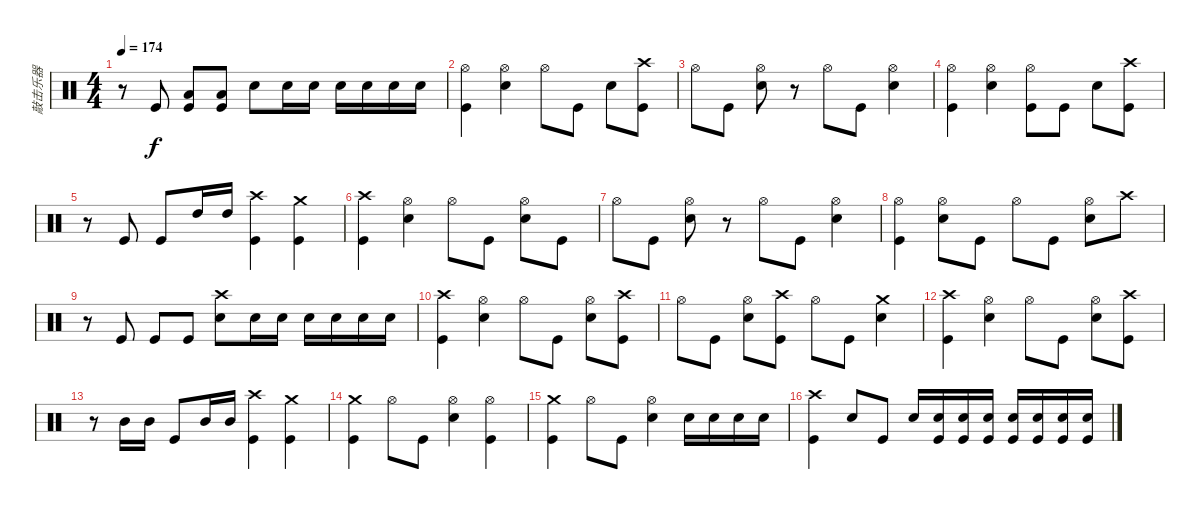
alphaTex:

\track ("敲击乐器" "敲击乐器") {instrument percussion}
\staff {score}
\articulation defaults
\ts (4 4)
\tempo 174
\clef neutral
\ks c
r.8{dy f} "Kick (hit)".8 ("Kick (hit)" "Low Tom (hit)").8 ("Kick (hit)" "Low Tom (hit)").8 "Electric Snare (hit)".8 "Electric Snare (hit)".16 "Electric Snare (hit)".16 "Electric Snare (hit)".16 "Electric Snare (hit)".16 "Electric Snare (hit)".16 "Electric Snare (hit)".16 |
("Hi-Hat (open)" "Kick (hit)").4 ("Hi-Hat (open)" "Electric Snare (hit)").4 "Hi-Hat (open)".8 "Kick (hit)".8 "Electric Snare (hit)".8 ("Kick (hit)" "Crash high (hit)").8 |
"Hi-Hat (open)".8 "Kick (hit)".8 ("Hi-Hat (open)" "Electric Snare (hit)").8 r.8 "Hi-Hat (open)".8 "Kick (hit)".8 ("Hi-Hat (open)" "Electric Snare (hit)").4 |
("Hi-Hat (open)" "Kick (hit)").4 ("Hi-Hat (open)" "Electric Snare (hit)").4 ("Hi-Hat (open)" "Kick (hit)").8 "Kick (hit)".8 "Electric Snare (hit)".8 ("Kick (hit)" "Crash high (hit)").8 |
r.8 "Kick (hit)".8 "Kick (hit)".8 "High Tom (hit)".16 "High Tom (hit)".16 ("Kick (hit)" "Crash high (hit)").4 ("Kick (hit)" "Crash medium (hit)").4 |
("Crash high (hit)" "Kick (hit)").4 ("Hi-Hat (open)" "Electric Snare (hit)").4 "Hi-Hat (open)".8 "Kick (hit)".8 ("Electric Snare (hit)" "Hi-Hat (open)").8 "Kick (hit)".8 |
"Hi-Hat (open)".8 "Kick (hit)".8 ("Hi-Hat (open)" "Electric Snare (hit)").8 r.8 "Hi-Hat (open)".8 "Kick (hit)".8 ("Hi-Hat (open)" "Electric Snare (hit)").4 |
("Kick (hit)" "Hi-Hat (open)").4 ("Electric Snare (hit)" "Hi-Hat (open)").8 "Kick (hit)".8 "Hi-Hat (open)".8 "Kick (hit)".8 ("Electric Snare (hit)" "Hi-Hat (open)").8 "Crash high (hit)".8 |
r.8 "Kick (hit)".8 "Kick (hit)".8 "Kick (hit)".8 ("Crash high (hit)" "Electric Snare (hit)").8 "Electric Snare (hit)".16 "Electric Snare (hit)".16 "Electric Snare (hit)".16 "Electric Snare (hit)".16 "Electric Snare (hit)".16 "Electric Snare (hit)".16 |
("Crash high (hit)" "Kick (hit)").4 ("Hi-Hat (open)" "Electric Snare (hit)").4 "Hi-Hat (open)".8 "Kick (hit)".8 ("Electric Snare (hit)" "Hi-Hat (open)").8 ("Kick (hit)" "Crash high (hit)").8 |
"Hi-Hat (open)".8 "Kick (hit)".8 ("Hi-Hat (open)" "Electric Snare (hit)").8 ("Kick (hit)" "Crash high (hit)").8 "Hi-Hat (open)".8 "Kick (hit)".8 ("Electric Snare (hit)" "Crash medium (hit)").4 |
("Crash high (hit)" "Kick (hit)").4 ("Hi-Hat (open)" "Electric Snare (hit)").4 "Hi-Hat (open)".8 "Kick (hit)".8 ("Electric Snare (hit)" "Hi-Hat (open)").8 ("Kick (hit)" "Crash high (hit)").8 |
r.8 "Mid Tom (hit)".16 "Mid Tom (hit)".16 "Kick (hit)".8 "Mid Tom (hit)".16 "Mid Tom (hit)".16 ("Kick (hit)" "Crash high (hit)").4 ("Kick (hit)" "Crash medium (hit)").4 |
("Kick (hit)" "Crash medium (hit)").4 "Hi-Hat (open)".8 "Kick (hit)".8 ("Hi-Hat (open)" "Electric Snare (hit)").4 ("Kick (hit)" "Hi-Hat (open)").4 |
("Kick (hit)" "Crash medium (hit)").4 "Hi-Hat (open)".8 "Kick (hit)".8 ("Hi-Hat (open)" "Electric Snare (hit)").4 "Electric Snare (hit)".16 "Electric Snare (hit)".16 "Electric Snare (hit)".16 "Electric Snare (hit)".16 |
("Crash high (hit)" "Kick (hit)").4 "Electric Snare (hit)".8 "Kick (hit)".8 "Electric Snare (hit)".16 ("Electric Snare (hit)" "Kick (hit)").16 ("Electric Snare (hit)" "Kick (hit)").16 ("Electric Snare (hit)" "Kick (hit)").16 ("Electric Snare (hit)" "Kick (hit)").16 ("Electric Snare (hit)" "Kick (hit)").16 ("Electric Snare (hit)" "Kick (hit)").16 ("Kick (hit)" "Electric Snare (hit)").16
